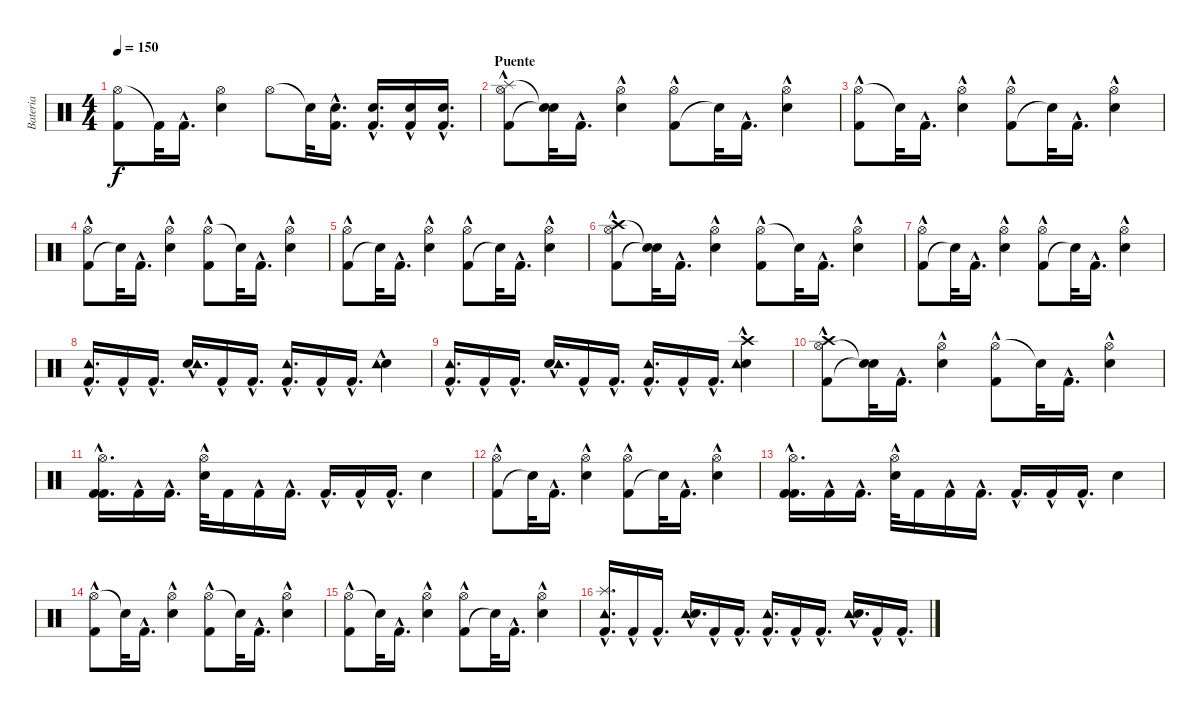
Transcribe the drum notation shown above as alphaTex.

\track ("Bateria" "Bateria") {instrument percussion}
\staff {score}
\articulation defaults
\ts (4 4)
\tempo 150
\clef neutral
\ks c
("Hi-Hat (open)" "Kick (hit) 2").8{dy f} "Kick (hit) 2"{t}.32 "Kick (hit) 2"{hac}.16{d} ("Hi-Hat (open)" "Snare (hit) 2").4 "Hi-Hat (open)".8 "Snare (hit)"{t}.32 ("Kick (hit) 2"{hac} "Snare (hit) 2"{hac}).16{d} ("Kick (hit) 2"{hac} "Snare (hit) 2"{hac}).16{d} ("Kick (hit) 2"{hac} "Snare (hit) 2"{hac}).16 ("Kick (hit) 2"{hac} "Snare (hit) 2"{hac}).16{d} |
\section ("" "Puente")
("Splash (hit)" "Kick (hit) 2"{hac} "Hi-Hat (open)").8 ("Snare (hit)"{t} "Snare (hit)"{t}).32 "Kick (hit) 2"{hac}.16{d} ("Snare (hit) 2"{hac} "Hi-Hat (open)").4 ("Kick (hit) 2"{hac} "Hi-Hat (open)").8 "Snare (hit)"{t}.32 "Kick (hit) 2"{hac}.16{d} ("Snare (hit) 2"{hac} "Hi-Hat (open)").4 |
("Hi-Hat (open)" "Kick (hit) 2"{hac}).8 "Snare (hit)"{t}.32 "Kick (hit) 2"{hac}.16{d} ("Hi-Hat (open)" "Snare (hit) 2"{hac}).4 ("Kick (hit) 2"{hac} "Hi-Hat (open)").8 "Snare (hit)"{t}.32 "Kick (hit) 2"{hac}.16{d} ("Hi-Hat (open)" "Snare (hit) 2"{hac}).4 |
("Kick (hit) 2"{hac} "Hi-Hat (open)").8 "Snare (hit)"{t}.32 "Kick (hit) 2"{hac}.16{d} ("Snare (hit) 2"{hac} "Hi-Hat (open)").4 ("Hi-Hat (open)" "Kick (hit) 2"{hac}).8 "Snare (hit)"{t}.32 "Kick (hit) 2"{hac}.16{d} ("Snare (hit) 2"{hac} "Hi-Hat (open)").4 |
("Kick (hit) 2"{hac} "Hi-Hat (open)").8 "Snare (hit)"{t}.32 "Kick (hit) 2"{hac}.16{d} ("Snare (hit) 2"{hac} "Hi-Hat (open)").4 ("Kick (hit) 2"{hac} "Hi-Hat (open)").8 "Snare (hit)"{t}.32 "Kick (hit) 2"{hac}.16{d} ("Snare (hit) 2"{hac} "Hi-Hat (open)").4 |
("Kick (hit) 2"{hac} "Crash high (hit)" "Hi-Hat (open)").8 ("Snare (hit)"{t} "Snare (hit)"{t}).32 "Kick (hit) 2"{hac}.16{d} ("Hi-Hat (open)" "Snare (hit) 2"{hac}).4 ("Hi-Hat (open)" "Kick (hit) 2"{hac}).8 "Snare (hit)"{t}.32 "Kick (hit) 2"{hac}.16{d} ("Hi-Hat (open)" "Snare (hit) 2"{hac}).4 |
("Kick (hit) 2"{hac} "Hi-Hat (open)").8 "Snare (hit)"{t}.32 "Kick (hit) 2"{hac}.16{d} ("Hi-Hat (open)" "Snare (hit) 2"{hac}).4 ("Kick (hit) 2"{hac} "Hi-Hat (open)").8 "Snare (hit)"{t}.32 "Kick (hit) 2"{hac}.16{d} ("Snare (hit) 2"{hac} "Hi-Hat (open)").4 |
("Tambourine (hit)" "Kick (hit) 2"{hac}).16{d} "Kick (hit) 2"{hac}.16 "Kick (hit) 2"{hac}.16{d} ("Snare (hit) 2"{hac} "Tambourine (hit)").16{d} "Kick (hit) 2"{hac}.16 "Kick (hit) 2"{hac}.16{d} ("Tambourine (hit)" "Kick (hit) 2"{hac}).16{d} "Kick (hit) 2"{hac}.16 "Kick (hit) 2"{hac}.16{d} ("Snare (hit) 2"{hac} "Tambourine (hit)").4 |
("Kick (hit) 2"{hac} "Tambourine (hit)").16{d} "Kick (hit) 2"{hac}.16 "Kick (hit) 2"{hac}.16{d} ("Snare (hit) 2"{hac} "Tambourine (hit)").16{d} "Kick (hit) 2"{hac}.16 "Kick (hit) 2"{hac}.16{d} ("Kick (hit) 2"{hac} "Tambourine (hit)").16{d} "Kick (hit) 2"{hac}.16 "Kick (hit) 2"{hac}.16{d} ("Snare (hit) 2"{hac} "Tambourine (hit)" "Crash high (hit)").4 |
("Hi-Hat (open)" "Kick (hit) 2"{hac} "Crash high (hit)").8 ("Snare (hit)"{t} "Snare (hit)"{t}).32 "Kick (hit) 2"{hac}.16{d} ("Hi-Hat (open)" "Snare (hit) 2"{hac}).4 ("Hi-Hat (open)" "Kick (hit) 2"{hac}).8 "Snare (hit)"{t}.32 "Kick (hit) 2"{hac}.16{d} ("Hi-Hat (open)" "Snare (hit) 2"{hac}).4 |
("Hi-Hat (open)" "Kick (hit) 2"{hac} "Kick (hit) 2"{hac}).16{d} "Kick (hit) 2"{hac}.16 "Kick (hit) 2"{hac}.16{d} ("Snare (hit) 2"{hac} "Hi-Hat (open)").32 "Kick (hit) 2".16 "Kick (hit) 2"{hac}.16 "Kick (hit) 2"{hac}.16{d} "Kick (hit) 2"{hac}.16{d} "Kick (hit) 2"{hac}.16 "Kick (hit) 2"{hac}.16{d} "Snare (hit) 2".4 |
("Kick (hit) 2"{hac} "Hi-Hat (open)").8 "Snare (hit)"{t}.32 "Kick (hit) 2"{hac}.16{d} ("Snare (hit) 2"{hac} "Hi-Hat (open)").4 ("Kick (hit) 2"{hac} "Hi-Hat (open)").8 "Snare (hit)"{t}.32 "Kick (hit) 2"{hac}.16{d} ("Snare (hit) 2"{hac} "Hi-Hat (open)").4 |
("Kick (hit) 2"{hac} "Hi-Hat (open)" "Kick (hit) 2"{hac}).16{d} "Kick (hit) 2"{hac}.16 "Kick (hit) 2"{hac}.16{d} ("Snare (hit) 2"{hac} "Hi-Hat (open)").32 "Kick (hit) 2".16 "Kick (hit) 2"{hac}.16 "Kick (hit) 2"{hac}.16{d} "Kick (hit) 2"{hac}.16{d} "Kick (hit) 2"{hac}.16 "Kick (hit) 2"{hac}.16{d} "Snare (hit) 2".4 |
("Hi-Hat (open)" "Kick (hit) 2"{hac}).8 "Snare (hit)"{t}.32 "Kick (hit) 2"{hac}.16{d} ("Hi-Hat (open)" "Snare (hit) 2"{hac}).4 ("Hi-Hat (open)" "Kick (hit) 2"{hac}).8 "Snare (hit)"{t}.32 "Kick (hit) 2"{hac}.16{d} ("Hi-Hat (open)" "Snare (hit) 2"{hac}).4 |
("Hi-Hat (open)" "Kick (hit) 2"{hac}).8 "Snare (hit)"{t}.32 "Kick (hit) 2"{hac}.16{d} ("Hi-Hat (open)" "Snare (hit) 2"{hac}).4 ("Kick (hit) 2"{hac} "Hi-Hat (open)").8 "Snare (hit)"{t}.32 "Kick (hit) 2"{hac}.16{d} ("Snare (hit) 2"{hac} "Hi-Hat (open)").4 |
("Splash (hit)" "Kick (hit) 2"{hac} "Tambourine (hit)").16{d} "Kick (hit) 2"{hac}.16 "Kick (hit) 2"{hac}.16{d} ("Tambourine (hit)" "Snare (hit) 2"{hac}).16{d} "Kick (hit) 2"{hac}.16 "Kick (hit) 2"{hac}.16{d} ("Tambourine (hit)" "Kick (hit) 2"{hac}).16{d} "Kick (hit) 2"{hac}.16 "Kick (hit) 2"{hac}.16{d} ("Tambourine (hit)" "Snare (hit) 2"{hac}).16{d} "Kick (hit) 2"{hac}.16 "Kick (hit) 2"{hac}.16{d}
